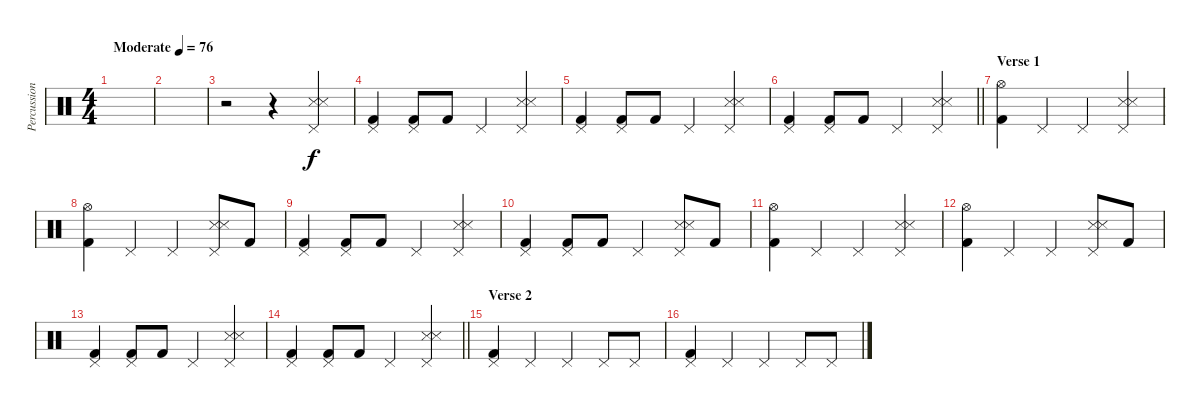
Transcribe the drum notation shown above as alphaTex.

\track ("Percussion" "Percussion") {instrument percussion}
\staff {score}
\articulation defaults
\ts (4 4)
\tempo (76 "Moderate")
\clef neutral
\ks c
|
|
r.2 r.4 ("Pedal Hi-Hat (hit)" "Snare (side stick) 3" "Snare (side stick) 3").4 |
("Pedal Hi-Hat (hit)" "Kick (hit) 2").4 ("Pedal Hi-Hat (hit)" "Kick (hit) 2").8 "Kick (hit) 2".8 "Pedal Hi-Hat (hit)".4 ("Pedal Hi-Hat (hit)" "Snare (side stick) 3" "Snare (side stick) 3").4 |
("Pedal Hi-Hat (hit)" "Kick (hit) 2").4 ("Pedal Hi-Hat (hit)" "Kick (hit) 2").8 "Kick (hit) 2".8 "Pedal Hi-Hat (hit)".4 ("Pedal Hi-Hat (hit)" "Snare (side stick) 3" "Snare (side stick) 3").4 |
\barLineRight lightlight
("Pedal Hi-Hat (hit)" "Kick (hit) 2").4 ("Pedal Hi-Hat (hit)" "Kick (hit) 2").8 "Kick (hit) 2".8 "Pedal Hi-Hat (hit)".4 ("Pedal Hi-Hat (hit)" "Snare (side stick) 3" "Snare (side stick) 3").4 |
\section ("" "Verse 1")
("Hi-Hat (open)" "Kick (hit) 2").4 "Pedal Hi-Hat (hit)".4 "Pedal Hi-Hat (hit)".4 ("Pedal Hi-Hat (hit)" "Snare (side stick) 3" "Snare (side stick) 3").4 |
("Hi-Hat (open)" "Kick (hit) 2").4 "Pedal Hi-Hat (hit)".4 "Pedal Hi-Hat (hit)".4 ("Pedal Hi-Hat (hit)" "Snare (side stick) 3" "Snare (side stick) 3").8 "Kick (hit) 2".8 |
("Pedal Hi-Hat (hit)" "Kick (hit) 2").4 ("Pedal Hi-Hat (hit)" "Kick (hit) 2").8 "Kick (hit) 2".8 "Pedal Hi-Hat (hit)".4 ("Pedal Hi-Hat (hit)" "Snare (side stick) 3" "Snare (side stick) 3").4 |
("Pedal Hi-Hat (hit)" "Kick (hit) 2").4 ("Pedal Hi-Hat (hit)" "Kick (hit) 2").8 "Kick (hit) 2".8 "Pedal Hi-Hat (hit)".4 ("Pedal Hi-Hat (hit)" "Snare (side stick) 3" "Snare (side stick) 3").8 "Kick (hit) 2".8 |
("Hi-Hat (open)" "Kick (hit) 2").4 "Pedal Hi-Hat (hit)".4 "Pedal Hi-Hat (hit)".4 ("Pedal Hi-Hat (hit)" "Snare (side stick) 3" "Snare (side stick) 3").4 |
("Hi-Hat (open)" "Kick (hit) 2").4 "Pedal Hi-Hat (hit)".4 "Pedal Hi-Hat (hit)".4 ("Pedal Hi-Hat (hit)" "Snare (side stick) 3" "Snare (side stick) 3").8 "Kick (hit) 2".8 |
("Pedal Hi-Hat (hit)" "Kick (hit) 2").4 ("Pedal Hi-Hat (hit)" "Kick (hit) 2").8 "Kick (hit) 2".8 "Pedal Hi-Hat (hit)".4 ("Pedal Hi-Hat (hit)" "Snare (side stick) 3" "Snare (side stick) 3").4 |
\barLineRight lightlight
("Pedal Hi-Hat (hit)" "Kick (hit) 2").4 ("Pedal Hi-Hat (hit)" "Kick (hit) 2").8 "Kick (hit) 2".8 "Pedal Hi-Hat (hit)".4 ("Pedal Hi-Hat (hit)" "Snare (side stick) 3" "Snare (side stick) 3").4 |
\section ("" "Verse 2")
("Pedal Hi-Hat (hit)" "Kick (hit) 2").4 "Pedal Hi-Hat (hit)".4 "Pedal Hi-Hat (hit)".4 "Pedal Hi-Hat (hit)".8 "Pedal Hi-Hat (hit)".8 |
("Pedal Hi-Hat (hit)" "Kick (hit) 2").4 "Pedal Hi-Hat (hit)".4 "Pedal Hi-Hat (hit)".4 "Pedal Hi-Hat (hit)".8 "Pedal Hi-Hat (hit)".8
